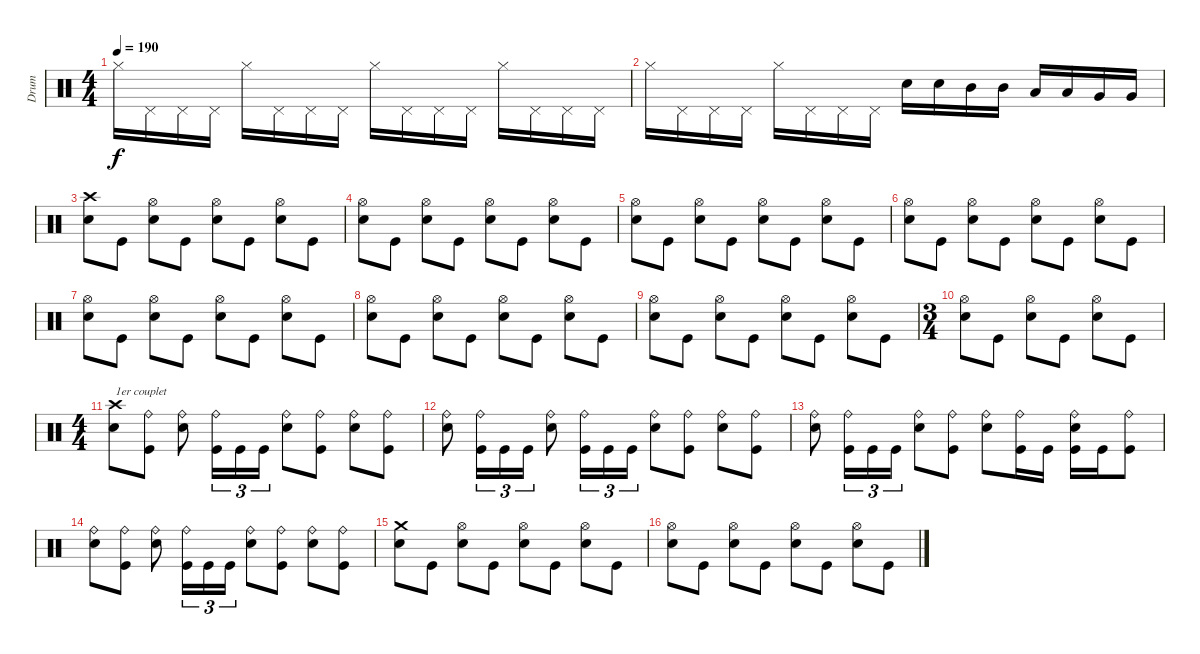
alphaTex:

\track ("Drum" "Drum") {instrument percussion}
\staff {score}
\articulation defaults
\ts (4 4)
\tempo 190
\clef neutral
\ks c "Hi-Hat (closed)".16{dy f} "Pedal Hi-Hat (hit)".16 "Pedal Hi-Hat (hit)".16 "Pedal Hi-Hat (hit)".16 "Hi-Hat (closed)".16 "Pedal Hi-Hat (hit)".16 "Pedal Hi-Hat (hit)".16 "Pedal Hi-Hat (hit)".16 "Hi-Hat (closed)".16 "Pedal Hi-Hat (hit)".16 "Pedal Hi-Hat (hit)".16 "Pedal Hi-Hat (hit)".16 "Hi-Hat (closed)".16 "Pedal Hi-Hat (hit)".16 "Pedal Hi-Hat (hit)".16 "Pedal Hi-Hat (hit)".16
|
"Hi-Hat (closed)".16 "Pedal Hi-Hat (hit)".16 "Pedal Hi-Hat (hit)".16 "Pedal Hi-Hat (hit)".16 "Hi-Hat (closed)".16 "Pedal Hi-Hat (hit)".16 "Pedal Hi-Hat (hit)".16 "Pedal Hi-Hat (hit)".16 "Electric Snare (hit)".16 "Electric Snare (hit)".16 "Mid Tom (hit)".16 "Mid Tom (hit)".16 "Low Tom (hit)".16 "Low Tom (hit)".16 "Very Low Tom (hit)".16 "Very Low Tom (hit)".16 |
("Electric Snare (hit)" "Crash high (hit)").8 "Kick (hit)".8 ("Electric Snare (hit)" "Hi-Hat (open)").8 "Kick (hit)".8 ("Electric Snare (hit)" "Hi-Hat (open)").8 "Kick (hit)".8 ("Electric Snare (hit)" "Hi-Hat (open)").8 "Kick (hit)".8 |
("Electric Snare (hit)" "Hi-Hat (open)").8 "Kick (hit)".8 ("Electric Snare (hit)" "Hi-Hat (open)").8 "Kick (hit)".8 ("Electric Snare (hit)" "Hi-Hat (open)").8 "Kick (hit)".8 ("Electric Snare (hit)" "Hi-Hat (open)").8 "Kick (hit)".8 |
("Electric Snare (hit)" "Hi-Hat (open)").8 "Kick (hit)".8 ("Electric Snare (hit)" "Hi-Hat (open)").8 "Kick (hit)".8 ("Electric Snare (hit)" "Hi-Hat (open)").8 "Kick (hit)".8 ("Electric Snare (hit)" "Hi-Hat (open)").8 "Kick (hit)".8 |
("Electric Snare (hit)" "Hi-Hat (open)").8 "Kick (hit)".8 ("Electric Snare (hit)" "Hi-Hat (open)").8 "Kick (hit)".8 ("Electric Snare (hit)" "Hi-Hat (open)").8 "Kick (hit)".8 ("Electric Snare (hit)" "Hi-Hat (open)").8 "Kick (hit)".8 |
("Electric Snare (hit)" "Hi-Hat (open)").8 "Kick (hit)".8 ("Electric Snare (hit)" "Hi-Hat (open)").8 "Kick (hit)".8 ("Electric Snare (hit)" "Hi-Hat (open)").8 "Kick (hit)".8 ("Electric Snare (hit)" "Hi-Hat (open)").8 "Kick (hit)".8 |
("Electric Snare (hit)" "Hi-Hat (open)").8 "Kick (hit)".8 ("Electric Snare (hit)" "Hi-Hat (open)").8 "Kick (hit)".8 ("Electric Snare (hit)" "Hi-Hat (open)").8 "Kick (hit)".8 ("Electric Snare (hit)" "Hi-Hat (open)").8 "Kick (hit)".8 |
("Electric Snare (hit)" "Hi-Hat (open)").8 "Kick (hit)".8 ("Electric Snare (hit)" "Hi-Hat (open)").8 "Kick (hit)".8 ("Electric Snare (hit)" "Hi-Hat (open)").8 "Kick (hit)".8 ("Electric Snare (hit)" "Hi-Hat (open)").8 "Kick (hit)".8 |
\ts (3 4)
("Electric Snare (hit)" "Hi-Hat (open)").8 "Kick (hit)".8 ("Electric Snare (hit)" "Hi-Hat (open)").8 "Kick (hit)".8 ("Electric Snare (hit)" "Hi-Hat (open)").8 "Kick (hit)".8 |
\ts (4 4)
("Electric Snare (hit)" "Crash high (hit)").8{txt "1er couplet"} ("Kick (hit)" "Ride (bell)").8 ("Electric Snare (hit)" "Ride (bell)").8 ("Kick (hit)" "Ride (bell)").16{tu (3 2)} "Kick (hit)".16{tu (3 2)} "Kick (hit)".16{tu (3 2)} ("Electric Snare (hit)" "Ride (bell)").8 ("Kick (hit)" "Ride (bell)").8 ("Electric Snare (hit)" "Ride (bell)").8 ("Kick (hit)" "Ride (bell)").8 |
("Electric Snare (hit)" "Ride (bell)").8 ("Kick (hit)" "Ride (bell)").16{tu (3 2)} "Kick (hit)".16{tu (3 2)} "Kick (hit)".16{tu (3 2)} ("Electric Snare (hit)" "Ride (bell)").8 ("Kick (hit)" "Ride (bell)").16{tu (3 2)} "Kick (hit)".16{tu (3 2)} "Kick (hit)".16{tu (3 2)} ("Electric Snare (hit)" "Ride (bell)").8 ("Kick (hit)" "Ride (bell)").8 ("Electric Snare (hit)" "Ride (bell)").8 ("Kick (hit)" "Ride (bell)").8 |
("Electric Snare (hit)" "Ride (bell)").8 ("Kick (hit)" "Ride (bell)").16{tu (3 2)} "Kick (hit)".16{tu (3 2)} "Kick (hit)".16{tu (3 2)} ("Electric Snare (hit)" "Ride (bell)").8 ("Kick (hit)" "Ride (bell)").8 ("Electric Snare (hit)" "Ride (bell)").8 ("Kick (hit)" "Ride (bell)").16 "Kick (hit)".16 ("Kick (hit)" "Electric Snare (hit)" "Ride (bell)").16 "Kick (hit)".16 ("Kick (hit)" "Ride (bell)").8 |
("Electric Snare (hit)" "Ride (bell)").8 ("Kick (hit)" "Ride (bell)").8 ("Electric Snare (hit)" "Ride (bell)").8 ("Kick (hit)" "Ride (bell)").16{tu (3 2)} "Kick (hit)".16{tu (3 2)} "Kick (hit)".16{tu (3 2)} ("Electric Snare (hit)" "Ride (bell)").8 ("Kick (hit)" "Ride (bell)").8 ("Electric Snare (hit)" "Ride (bell)").8 ("Kick (hit)" "Ride (bell)").8 |
("Electric Snare (hit)" "Crash medium (hit)").8 "Kick (hit)".8 ("Electric Snare (hit)" "Hi-Hat (open)").8 "Kick (hit)".8 ("Electric Snare (hit)" "Hi-Hat (open)").8 "Kick (hit)".8 ("Electric Snare (hit)" "Hi-Hat (open)").8 "Kick (hit)".8 |
("Electric Snare (hit)" "Hi-Hat (open)").8 "Kick (hit)".8 ("Electric Snare (hit)" "Hi-Hat (open)").8 "Kick (hit)".8 ("Electric Snare (hit)" "Hi-Hat (open)").8 "Kick (hit)".8 ("Electric Snare (hit)" "Hi-Hat (open)").8 "Kick (hit)".8
